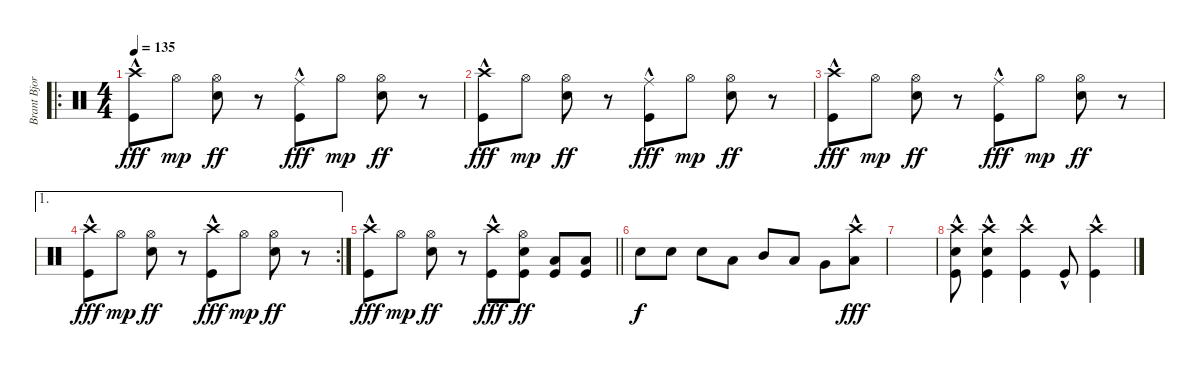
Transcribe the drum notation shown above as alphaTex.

\track ("Brant Bjork" "Brant Bjor") {instrument percussion}
\staff {score}
\articulation defaults
\ro
\ts (4 4)
\tempo 135
\clef neutral
\ks c
("Crash high (hit)" "Kick (hit)"{hac}).8{dy fff} "Hi-Hat (open)".8{dy mp} ("Hi-Hat (open)" "Snare (hit) 2").8{dy ff} r.8 ("Ride (middle)" "Kick (hit)"{hac}).8{dy fff} "Hi-Hat (open)".8{dy mp} ("Hi-Hat (open)" "Snare (hit) 2").8{dy ff} r.8 |
("Crash high (hit)" "Kick (hit)"{hac}).8{dy fff} "Hi-Hat (open)".8{dy mp} ("Hi-Hat (open)" "Snare (hit) 2").8{dy ff} r.8 ("Ride (middle)" "Kick (hit)"{hac}).8{dy fff} "Hi-Hat (open)".8{dy mp} ("Hi-Hat (open)" "Snare (hit) 2").8{dy ff} r.8 |
("Crash high (hit)" "Kick (hit)"{hac}).8{dy fff} "Hi-Hat (open)".8{dy mp} ("Hi-Hat (open)" "Snare (hit) 2").8{dy ff} r.8 ("Ride (middle)" "Kick (hit)"{hac}).8{dy fff} "Hi-Hat (open)".8{dy mp} ("Hi-Hat (open)" "Snare (hit) 2").8{dy ff} r.8 |
\ae 1
\rc 2
("Crash high (hit)" "Kick (hit)"{hac}).8{dy fff} "Hi-Hat (open)".8{dy mp} ("Hi-Hat (open)" "Snare (hit) 2").8{dy ff} r.8 ("Crash high (hit)" "Kick (hit)"{hac}).8{dy fff} "Hi-Hat (open)".8{dy mp} ("Hi-Hat (open)" "Snare (hit) 2").8{dy ff} r.8 |
\barLineRight lightlight
("Crash high (hit)" "Kick (hit)"{hac}).8{dy fff} "Hi-Hat (open)".8{dy mp} ("Hi-Hat (open)" "Snare (hit) 2").8{dy ff} r.8 ("Crash high (hit)" "Kick (hit)"{hac}).8{dy fff} ("Hi-Hat (open)" "Snare (hit) 2" "Kick (hit)").8{dy ff} ("Low Tom (hit)" "Kick (hit)").8 ("Low Tom (hit)" "Kick (hit)").8 |
"Snare (hit) 2".8{dy f} "Snare (hit) 2".8 "Snare (hit) 2".8 "Low Tom (hit)".8 "Mid Tom (hit)".8 "Low Tom (hit)".8 "Very Low Tom (hit)".8 ("Crash high (hit)"{hac} "Low Floor Tom (hit)").8{dy fff} |
|
("Crash high (hit)" "Snare (hit) 2" "Kick (hit)"{hac}).8 ("Crash high (hit)" "Snare (hit) 2" "Kick (hit)"{hac}).4 ("Crash high (hit)" "Kick (hit)"{hac}).4 "Kick (hit)"{hac}.8 ("Crash high (hit)" "Kick (hit)"{hac}).4
